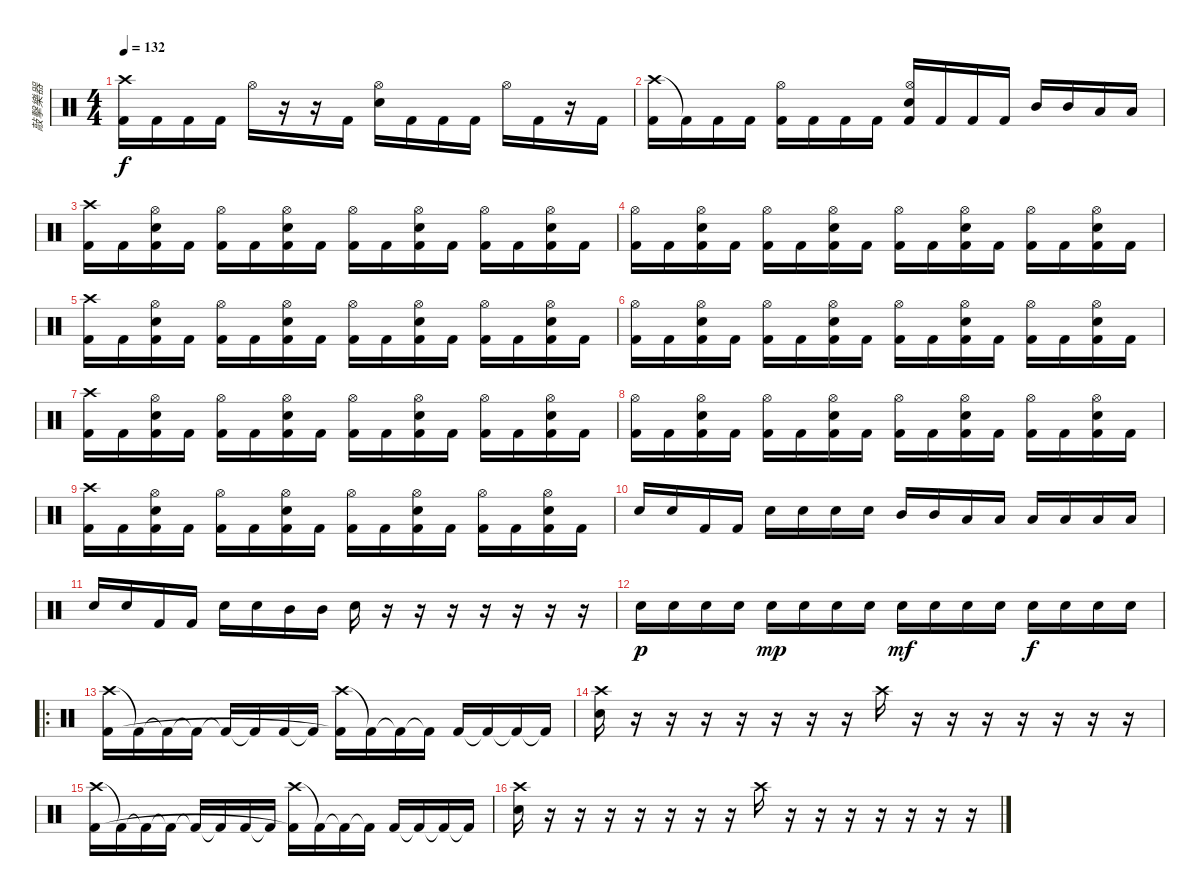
\track ("敲擊樂器" "敲擊樂器") {instrument percussion}
\staff {score}
\articulation defaults
\ts (4 4)
\tempo 132
\clef neutral
\ks c
("Crash high (hit)" "Kick (hit) 2").16{dy f} "Kick (hit) 2".16 "Kick (hit) 2".16 "Kick (hit) 2".16 "Hi-Hat (open)".16 r.16 r.16 "Kick (hit) 2".16 ("Hi-Hat (open)" "Electric Snare (hit)").16 "Kick (hit) 2".16 "Kick (hit) 2".16 "Kick (hit) 2".16 "Hi-Hat (open)".16 "Kick (hit) 2".16 r.16 "Kick (hit) 2".16 |
("Crash high (hit)" "Kick (hit) 2").16 "Kick (hit) 2"{t}.16 "Kick (hit) 2".16 "Kick (hit) 2".16 ("Hi-Hat (open)" "Kick (hit) 2").16 "Kick (hit) 2".16 "Kick (hit) 2".16 "Kick (hit) 2".16 ("Hi-Hat (open)" "Electric Snare (hit)" "Kick (hit) 2").16 "Kick (hit) 2".16 "Kick (hit) 2".16 "Kick (hit) 2".16 "Mid Tom (hit)".16 "Mid Tom (hit)".16 "Low Tom (hit)".16 "Low Tom (hit)".16 |
("Crash high (hit)" "Kick (hit) 2").16 "Kick (hit) 2".16 ("Hi-Hat (open)" "Electric Snare (hit)" "Kick (hit) 2").16 "Kick (hit) 2".16 ("Hi-Hat (open)" "Kick (hit) 2").16 "Kick (hit) 2".16 ("Hi-Hat (open)" "Electric Snare (hit)" "Kick (hit) 2").16 "Kick (hit) 2".16 ("Hi-Hat (open)" "Kick (hit) 2").16 "Kick (hit) 2".16 ("Hi-Hat (open)" "Electric Snare (hit)" "Kick (hit) 2").16 "Kick (hit) 2".16 ("Hi-Hat (open)" "Kick (hit) 2").16 "Kick (hit) 2".16 ("Hi-Hat (open)" "Electric Snare (hit)" "Kick (hit) 2").16 "Kick (hit) 2".16 |
("Hi-Hat (open)" "Kick (hit) 2").16 "Kick (hit) 2".16 ("Hi-Hat (open)" "Electric Snare (hit)" "Kick (hit) 2").16 "Kick (hit) 2".16 ("Hi-Hat (open)" "Kick (hit) 2").16 "Kick (hit) 2".16 ("Hi-Hat (open)" "Electric Snare (hit)" "Kick (hit) 2").16 "Kick (hit) 2".16 ("Hi-Hat (open)" "Kick (hit) 2").16 "Kick (hit) 2".16 ("Hi-Hat (open)" "Electric Snare (hit)" "Kick (hit) 2").16 "Kick (hit) 2".16 ("Hi-Hat (open)" "Kick (hit) 2").16 "Kick (hit) 2".16 ("Hi-Hat (open)" "Electric Snare (hit)" "Kick (hit) 2").16 "Kick (hit) 2".16 |
("Crash high (hit)" "Kick (hit) 2").16 "Kick (hit) 2".16 ("Hi-Hat (open)" "Electric Snare (hit)" "Kick (hit) 2").16 "Kick (hit) 2".16 ("Hi-Hat (open)" "Kick (hit) 2").16 "Kick (hit) 2".16 ("Hi-Hat (open)" "Electric Snare (hit)" "Kick (hit) 2").16 "Kick (hit) 2".16 ("Hi-Hat (open)" "Kick (hit) 2").16 "Kick (hit) 2".16 ("Hi-Hat (open)" "Electric Snare (hit)" "Kick (hit) 2").16 "Kick (hit) 2".16 ("Hi-Hat (open)" "Kick (hit) 2").16 "Kick (hit) 2".16 ("Hi-Hat (open)" "Electric Snare (hit)" "Kick (hit) 2").16 "Kick (hit) 2".16 |
("Hi-Hat (open)" "Kick (hit) 2").16 "Kick (hit) 2".16 ("Hi-Hat (open)" "Electric Snare (hit)" "Kick (hit) 2").16 "Kick (hit) 2".16 ("Hi-Hat (open)" "Kick (hit) 2").16 "Kick (hit) 2".16 ("Hi-Hat (open)" "Electric Snare (hit)" "Kick (hit) 2").16 "Kick (hit) 2".16 ("Hi-Hat (open)" "Kick (hit) 2").16 "Kick (hit) 2".16 ("Hi-Hat (open)" "Electric Snare (hit)" "Kick (hit) 2").16 "Kick (hit) 2".16 ("Hi-Hat (open)" "Kick (hit) 2").16 "Kick (hit) 2".16 ("Hi-Hat (open)" "Electric Snare (hit)" "Kick (hit) 2").16 "Kick (hit) 2".16 |
("Crash high (hit)" "Kick (hit) 2").16 "Kick (hit) 2".16 ("Hi-Hat (open)" "Electric Snare (hit)" "Kick (hit) 2").16 "Kick (hit) 2".16 ("Hi-Hat (open)" "Kick (hit) 2").16 "Kick (hit) 2".16 ("Hi-Hat (open)" "Electric Snare (hit)" "Kick (hit) 2").16 "Kick (hit) 2".16 ("Hi-Hat (open)" "Kick (hit) 2").16 "Kick (hit) 2".16 ("Hi-Hat (open)" "Electric Snare (hit)" "Kick (hit) 2").16 "Kick (hit) 2".16 ("Hi-Hat (open)" "Kick (hit) 2").16 "Kick (hit) 2".16 ("Hi-Hat (open)" "Electric Snare (hit)" "Kick (hit) 2").16 "Kick (hit) 2".16 |
("Hi-Hat (open)" "Kick (hit) 2").16 "Kick (hit) 2".16 ("Hi-Hat (open)" "Electric Snare (hit)" "Kick (hit) 2").16 "Kick (hit) 2".16 ("Hi-Hat (open)" "Kick (hit) 2").16 "Kick (hit) 2".16 ("Hi-Hat (open)" "Electric Snare (hit)" "Kick (hit) 2").16 "Kick (hit) 2".16 ("Hi-Hat (open)" "Kick (hit) 2").16 "Kick (hit) 2".16 ("Hi-Hat (open)" "Electric Snare (hit)" "Kick (hit) 2").16 "Kick (hit) 2".16 ("Hi-Hat (open)" "Kick (hit) 2").16 "Kick (hit) 2".16 ("Hi-Hat (open)" "Electric Snare (hit)" "Kick (hit) 2").16 "Kick (hit) 2".16 |
("Crash high (hit)" "Kick (hit) 2").16 "Kick (hit) 2".16 ("Hi-Hat (open)" "Electric Snare (hit)" "Kick (hit) 2").16 "Kick (hit) 2".16 ("Hi-Hat (open)" "Kick (hit) 2").16 "Kick (hit) 2".16 ("Hi-Hat (open)" "Electric Snare (hit)" "Kick (hit) 2").16 "Kick (hit) 2".16 ("Hi-Hat (open)" "Kick (hit) 2").16 "Kick (hit) 2".16 ("Hi-Hat (open)" "Electric Snare (hit)" "Kick (hit) 2").16 "Kick (hit) 2".16 ("Hi-Hat (open)" "Kick (hit) 2").16 "Kick (hit) 2".16 ("Hi-Hat (open)" "Electric Snare (hit)" "Kick (hit) 2").16 "Kick (hit) 2".16 |
"Electric Snare (hit)".16 "Electric Snare (hit)".16 "Kick (hit) 2".16 "Kick (hit) 2".16 "Electric Snare (hit)".16 "Electric Snare (hit)".16 "Electric Snare (hit)".16 "Electric Snare (hit)".16 "Mid Tom (hit)".16 "Mid Tom (hit)".16 "Low Tom (hit)".16 "Low Tom (hit)".16 "Low Tom (hit)".16 "Low Tom (hit)".16 "Low Tom (hit)".16 "Low Tom (hit)".16 |
"Electric Snare (hit)".16 "Electric Snare (hit)".16 "Kick (hit) 2".16 "Kick (hit) 2".16 "Electric Snare (hit)".16 "Electric Snare (hit)".16 "Mid Tom (hit)".16 "Mid Tom (hit)".16 "Electric Snare (hit)".16 r.16 r.16 r.16 r.16 r.16 r.16 r.16 |
"Electric Snare (hit)".16{dy p} "Electric Snare (hit)".16 "Electric Snare (hit)".16 "Electric Snare (hit)".16 "Electric Snare (hit)".16{dy mp} "Electric Snare (hit)".16 "Electric Snare (hit)".16 "Electric Snare (hit)".16 "Electric Snare (hit)".16{dy mf} "Electric Snare (hit)".16 "Electric Snare (hit)".16 "Electric Snare (hit)".16 "Electric Snare (hit)".16{dy f} "Electric Snare (hit)".16 "Electric Snare (hit)".16 "Electric Snare (hit)".16 |
\ro
("Crash high (hit)" "Kick (hit) 2").16 "Kick (hit) 2"{t}.16 "Kick (hit) 2"{t}.16 "Kick (hit) 2"{t}.16 "Kick (hit) 2"{t}.16 "Kick (hit) 2"{t}.16 "Kick (hit) 2".16 "Kick (hit) 2"{t}.16 ("Crash high (hit)" "Kick (hit) 2"{t}).16 "Kick (hit) 2"{t}.16 "Kick (hit) 2"{t}.16 "Kick (hit) 2"{t}.16 "Kick (hit) 2".16 "Kick (hit) 2"{t}.16 "Kick (hit) 2"{t}.16 "Kick (hit) 2"{t}.16 |
("Crash high (hit)" "Electric Snare (hit)").16 r.16 r.16 r.16 r.16 r.16 r.16 r.16 "Crash high (hit)".16 r.16 r.16 r.16 r.16 r.16 r.16 r.16 |
("Crash high (hit)" "Kick (hit) 2").16 "Kick (hit) 2"{t}.16 "Kick (hit) 2"{t}.16 "Kick (hit) 2"{t}.16 "Kick (hit) 2"{t}.16 "Kick (hit) 2"{t}.16 "Kick (hit) 2".16 "Kick (hit) 2"{t}.16 ("Crash high (hit)" "Kick (hit) 2"{t}).16 "Kick (hit) 2"{t}.16 "Kick (hit) 2"{t}.16 "Kick (hit) 2"{t}.16 "Kick (hit) 2".16 "Kick (hit) 2"{t}.16 "Kick (hit) 2"{t}.16 "Kick (hit) 2"{t}.16 |
("Crash high (hit)" "Electric Snare (hit)").16 r.16 r.16 r.16 r.16 r.16 r.16 r.16 "Crash high (hit)".16 r.16 r.16 r.16 r.16 r.16 r.16 r.16
